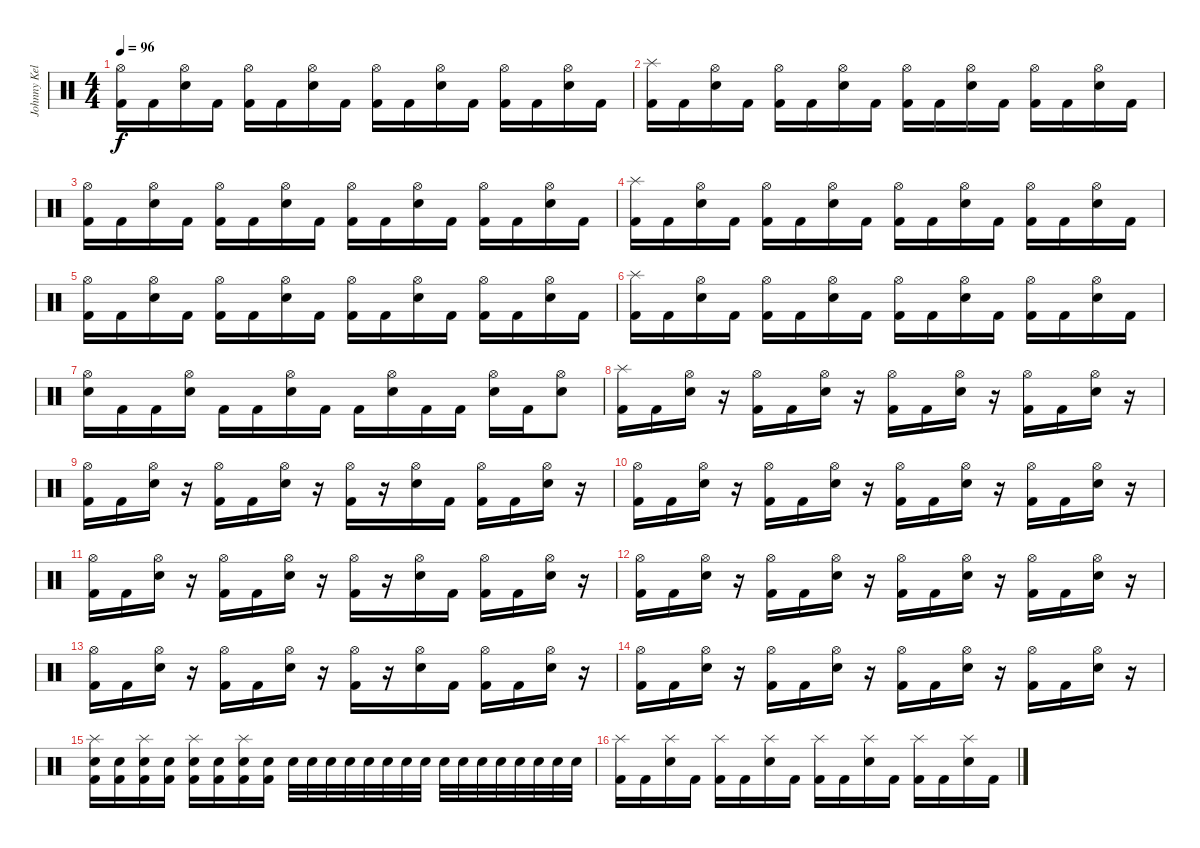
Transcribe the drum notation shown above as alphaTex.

\track ("Johnny Kelly - Drums" "Johnny Kel") {instrument percussion}
\staff {score}
\articulation defaults
\ts (4 4)
\tempo 96
\clef neutral
\ks c
("Hi-Hat (open)" "Kick (hit) 2").16{dy f} "Kick (hit) 2".16 ("Hi-Hat (open)" "Electric Snare (hit)").16 "Kick (hit) 2".16 ("Hi-Hat (open)" "Kick (hit) 2").16 "Kick (hit) 2".16 ("Hi-Hat (open)" "Electric Snare (hit)").16 "Kick (hit) 2".16 ("Hi-Hat (open)" "Kick (hit) 2").16 "Kick (hit) 2".16 ("Hi-Hat (open)" "Electric Snare (hit)").16 "Kick (hit) 2".16 ("Hi-Hat (open)" "Kick (hit) 2").16 "Kick (hit) 2".16 ("Hi-Hat (open)" "Electric Snare (hit)").16 "Kick (hit) 2".16 |
("Splash (hit)" "Kick (hit) 2").16 "Kick (hit) 2".16 ("Hi-Hat (open)" "Electric Snare (hit)").16 "Kick (hit) 2".16 ("Hi-Hat (open)" "Kick (hit) 2").16 "Kick (hit) 2".16 ("Hi-Hat (open)" "Electric Snare (hit)").16 "Kick (hit) 2".16 ("Hi-Hat (open)" "Kick (hit) 2").16 "Kick (hit) 2".16 ("Hi-Hat (open)" "Electric Snare (hit)").16 "Kick (hit) 2".16 ("Hi-Hat (open)" "Kick (hit) 2").16 "Kick (hit) 2".16 ("Hi-Hat (open)" "Electric Snare (hit)").16 "Kick (hit) 2".16 |
("Hi-Hat (open)" "Kick (hit) 2").16 "Kick (hit) 2".16 ("Hi-Hat (open)" "Electric Snare (hit)").16 "Kick (hit) 2".16 ("Hi-Hat (open)" "Kick (hit) 2").16 "Kick (hit) 2".16 ("Hi-Hat (open)" "Electric Snare (hit)").16 "Kick (hit) 2".16 ("Hi-Hat (open)" "Kick (hit) 2").16 "Kick (hit) 2".16 ("Hi-Hat (open)" "Electric Snare (hit)").16 "Kick (hit) 2".16 ("Hi-Hat (open)" "Kick (hit) 2").16 "Kick (hit) 2".16 ("Hi-Hat (open)" "Electric Snare (hit)").16 "Kick (hit) 2".16 |
("Splash (hit)" "Kick (hit) 2").16 "Kick (hit) 2".16 ("Hi-Hat (open)" "Electric Snare (hit)").16 "Kick (hit) 2".16 ("Hi-Hat (open)" "Kick (hit) 2").16 "Kick (hit) 2".16 ("Hi-Hat (open)" "Electric Snare (hit)").16 "Kick (hit) 2".16 ("Hi-Hat (open)" "Kick (hit) 2").16 "Kick (hit) 2".16 ("Hi-Hat (open)" "Electric Snare (hit)").16 "Kick (hit) 2".16 ("Hi-Hat (open)" "Kick (hit) 2").16 "Kick (hit) 2".16 ("Hi-Hat (open)" "Electric Snare (hit)").16 "Kick (hit) 2".16 |
("Hi-Hat (open)" "Kick (hit) 2").16 "Kick (hit) 2".16 ("Hi-Hat (open)" "Electric Snare (hit)").16 "Kick (hit) 2".16 ("Hi-Hat (open)" "Kick (hit) 2").16 "Kick (hit) 2".16 ("Hi-Hat (open)" "Electric Snare (hit)").16 "Kick (hit) 2".16 ("Hi-Hat (open)" "Kick (hit) 2").16 "Kick (hit) 2".16 ("Hi-Hat (open)" "Electric Snare (hit)").16 "Kick (hit) 2".16 ("Hi-Hat (open)" "Kick (hit) 2").16 "Kick (hit) 2".16 ("Hi-Hat (open)" "Electric Snare (hit)").16 "Kick (hit) 2".16 |
("Splash (hit)" "Kick (hit) 2").16 "Kick (hit) 2".16 ("Hi-Hat (open)" "Electric Snare (hit)").16 "Kick (hit) 2".16 ("Hi-Hat (open)" "Kick (hit) 2").16 "Kick (hit) 2".16 ("Hi-Hat (open)" "Electric Snare (hit)").16 "Kick (hit) 2".16 ("Hi-Hat (open)" "Kick (hit) 2").16 "Kick (hit) 2".16 ("Hi-Hat (open)" "Electric Snare (hit)").16 "Kick (hit) 2".16 ("Hi-Hat (open)" "Kick (hit) 2").16 "Kick (hit) 2".16 ("Hi-Hat (open)" "Electric Snare (hit)").16 "Kick (hit) 2".16 |
("Hi-Hat (open)" "Electric Snare (hit)").16 "Kick (hit) 2".16 "Kick (hit) 2".16 ("Hi-Hat (open)" "Electric Snare (hit)").16 "Kick (hit) 2".16 "Kick (hit) 2".16 ("Hi-Hat (open)" "Electric Snare (hit)").16 "Kick (hit) 2".16 "Kick (hit) 2".16 ("Hi-Hat (open)" "Electric Snare (hit)").16 "Kick (hit) 2".16 "Kick (hit) 2".16 ("Hi-Hat (open)" "Electric Snare (hit)").16 "Kick (hit) 2".16 ("Hi-Hat (open)" "Electric Snare (hit)").8 |
("Splash (hit)" "Kick (hit) 2").16 "Kick (hit) 2".16 ("Hi-Hat (open)" "Electric Snare (hit)").16 r.16 ("Hi-Hat (open)" "Kick (hit) 2").16 "Kick (hit) 2".16 ("Hi-Hat (open)" "Electric Snare (hit)").16 r.16 ("Hi-Hat (open)" "Kick (hit) 2").16 "Kick (hit) 2".16 ("Hi-Hat (open)" "Electric Snare (hit)").16 r.16 ("Hi-Hat (open)" "Kick (hit) 2").16 "Kick (hit) 2".16 ("Hi-Hat (open)" "Electric Snare (hit)").16 r.16 |
("Hi-Hat (open)" "Kick (hit) 2").16 "Kick (hit) 2".16 ("Hi-Hat (open)" "Electric Snare (hit)").16 r.16 ("Hi-Hat (open)" "Kick (hit) 2").16 "Kick (hit) 2".16 ("Hi-Hat (open)" "Electric Snare (hit)").16 r.16 ("Hi-Hat (open)" "Kick (hit) 2").16 r.16 ("Hi-Hat (open)" "Electric Snare (hit)").16 "Kick (hit) 2".16 ("Hi-Hat (open)" "Kick (hit) 2").16 "Kick (hit) 2".16 ("Hi-Hat (open)" "Electric Snare (hit)").16 r.16 |
("Hi-Hat (open)" "Kick (hit) 2").16 "Kick (hit) 2".16 ("Hi-Hat (open)" "Electric Snare (hit)").16 r.16 ("Hi-Hat (open)" "Kick (hit) 2").16 "Kick (hit) 2".16 ("Hi-Hat (open)" "Electric Snare (hit)").16 r.16 ("Hi-Hat (open)" "Kick (hit) 2").16 "Kick (hit) 2".16 ("Hi-Hat (open)" "Electric Snare (hit)").16 r.16 ("Hi-Hat (open)" "Kick (hit) 2").16 "Kick (hit) 2".16 ("Hi-Hat (open)" "Electric Snare (hit)").16 r.16 |
("Hi-Hat (open)" "Kick (hit) 2").16 "Kick (hit) 2".16 ("Hi-Hat (open)" "Electric Snare (hit)").16 r.16 ("Hi-Hat (open)" "Kick (hit) 2").16 "Kick (hit) 2".16 ("Hi-Hat (open)" "Electric Snare (hit)").16 r.16 ("Hi-Hat (open)" "Kick (hit) 2").16 r.16 ("Hi-Hat (open)" "Electric Snare (hit)").16 "Kick (hit) 2".16 ("Hi-Hat (open)" "Kick (hit) 2").16 "Kick (hit) 2".16 ("Hi-Hat (open)" "Electric Snare (hit)").16 r.16 |
("Hi-Hat (open)" "Kick (hit) 2").16 "Kick (hit) 2".16 ("Hi-Hat (open)" "Electric Snare (hit)").16 r.16 ("Hi-Hat (open)" "Kick (hit) 2").16 "Kick (hit) 2".16 ("Hi-Hat (open)" "Electric Snare (hit)").16 r.16 ("Hi-Hat (open)" "Kick (hit) 2").16 "Kick (hit) 2".16 ("Hi-Hat (open)" "Electric Snare (hit)").16 r.16 ("Hi-Hat (open)" "Kick (hit) 2").16 "Kick (hit) 2".16 ("Hi-Hat (open)" "Electric Snare (hit)").16 r.16 |
("Hi-Hat (open)" "Kick (hit) 2").16 "Kick (hit) 2".16 ("Hi-Hat (open)" "Electric Snare (hit)").16 r.16 ("Hi-Hat (open)" "Kick (hit) 2").16 "Kick (hit) 2".16 ("Hi-Hat (open)" "Electric Snare (hit)").16 r.16 ("Hi-Hat (open)" "Kick (hit) 2").16 r.16 ("Hi-Hat (open)" "Electric Snare (hit)").16 "Kick (hit) 2".16 ("Hi-Hat (open)" "Kick (hit) 2").16 "Kick (hit) 2".16 ("Hi-Hat (open)" "Electric Snare (hit)").16 r.16 |
("Hi-Hat (open)" "Kick (hit) 2").16 "Kick (hit) 2".16 ("Hi-Hat (open)" "Electric Snare (hit)").16 r.16 ("Hi-Hat (open)" "Kick (hit) 2").16 "Kick (hit) 2".16 ("Hi-Hat (open)" "Electric Snare (hit)").16 r.16 ("Hi-Hat (open)" "Kick (hit) 2").16 "Kick (hit) 2".16 ("Hi-Hat (open)" "Electric Snare (hit)").16 r.16 ("Hi-Hat (open)" "Kick (hit) 2").16 "Kick (hit) 2".16 ("Hi-Hat (open)" "Electric Snare (hit)").16 r.16 |
("Splash (hit)" "Electric Snare (hit)" "Kick (hit) 2").16 ("Electric Snare (hit)" "Kick (hit) 2").16 ("Splash (hit)" "Electric Snare (hit)" "Kick (hit) 2").16 ("Electric Snare (hit)" "Kick (hit) 2").16 ("Splash (hit)" "Electric Snare (hit)" "Kick (hit) 2").16 ("Electric Snare (hit)" "Kick (hit) 2").16 ("Splash (hit)" "Electric Snare (hit)" "Kick (hit) 2").16 ("Electric Snare (hit)" "Kick (hit) 2").16 "Electric Snare (hit)".32 "Electric Snare (hit)".32 "Electric Snare (hit)".32 "Electric Snare (hit)".32 "Electric Snare (hit)".32 "Electric Snare (hit)".32 "Electric Snare (hit)".32 "Electric Snare (hit)".32 "Electric Snare (hit)".32 "Electric Snare (hit)".32 "Electric Snare (hit)".32 "Electric Snare (hit)".32 "Electric Snare (hit)".32 "Electric Snare (hit)".32 "Electric Snare (hit)".32 "Electric Snare (hit)".32 |
("Splash (hit)" "Kick (hit) 2").16 "Kick (hit) 2".16 ("Splash (hit)" "Electric Snare (hit)").16 "Kick (hit) 2".16 ("Splash (hit)" "Kick (hit) 2").16 "Kick (hit) 2".16 ("Splash (hit)" "Electric Snare (hit)").16 "Kick (hit) 2".16 ("Splash (hit)" "Kick (hit) 2").16 "Kick (hit) 2".16 ("Splash (hit)" "Electric Snare (hit)").16 "Kick (hit) 2".16 ("Splash (hit)" "Kick (hit) 2").16 "Kick (hit) 2".16 ("Splash (hit)" "Electric Snare (hit)").16 "Kick (hit) 2".16
